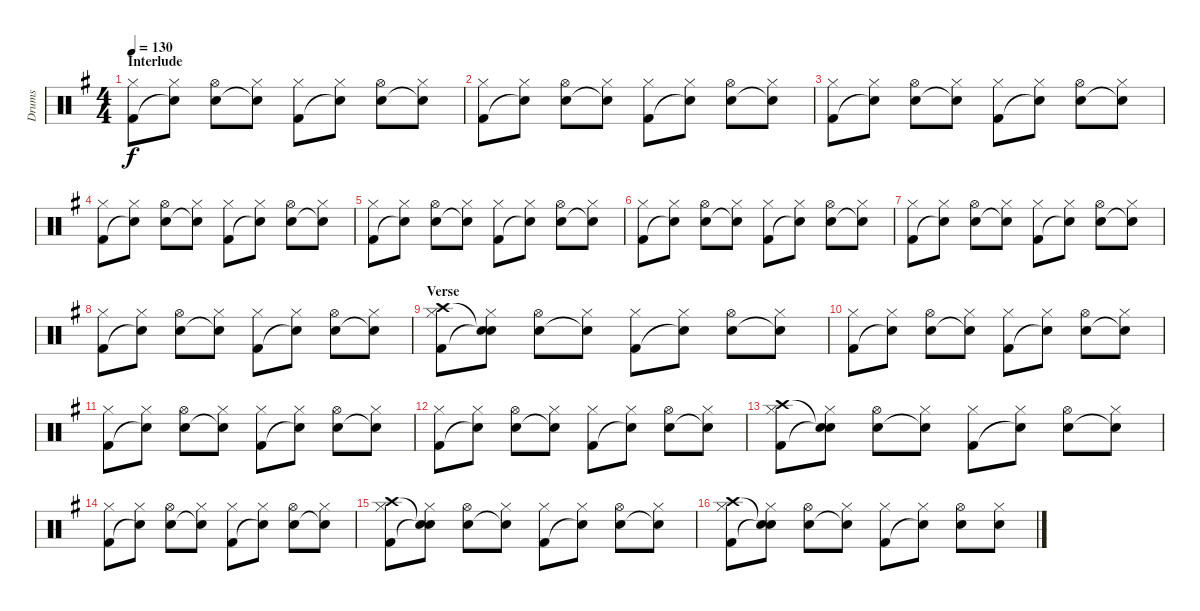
\track ("Drums" "Drums") {instrument percussion}
\staff {score}
\articulation defaults
\ts (4 4)
\section ("" "Interlude")
\tempo 130
\clef neutral
\ks g
("Hi-Hat (closed)" "Kick (hit) 2").8{dy f} ("Hi-Hat (closed)" "Snare (hit)"{t}).8 ("Hi-Hat (open)" "Electric Snare (hit)").8 ("Hi-Hat (closed)" "Snare (hit)"{t}).8 ("Hi-Hat (closed)" "Kick (hit) 2").8 ("Hi-Hat (closed)" "Snare (hit)"{t}).8 ("Hi-Hat (open)" "Electric Snare (hit)").8 ("Hi-Hat (closed)" "Snare (hit)"{t}).8 |
("Hi-Hat (closed)" "Kick (hit) 2").8 ("Hi-Hat (closed)" "Snare (hit)"{t}).8 ("Hi-Hat (open)" "Electric Snare (hit)").8 ("Hi-Hat (closed)" "Snare (hit)"{t}).8 ("Hi-Hat (closed)" "Kick (hit) 2").8 ("Hi-Hat (closed)" "Snare (hit)"{t}).8 ("Hi-Hat (open)" "Electric Snare (hit)").8 ("Hi-Hat (closed)" "Snare (hit)"{t}).8 |
("Hi-Hat (closed)" "Kick (hit) 2").8 ("Hi-Hat (closed)" "Snare (hit)"{t}).8 ("Hi-Hat (open)" "Electric Snare (hit)").8 ("Hi-Hat (closed)" "Snare (hit)"{t}).8 ("Hi-Hat (closed)" "Kick (hit) 2").8 ("Hi-Hat (closed)" "Snare (hit)"{t}).8 ("Hi-Hat (open)" "Electric Snare (hit)").8 ("Hi-Hat (closed)" "Snare (hit)"{t}).8 |
("Hi-Hat (closed)" "Kick (hit) 2").8 ("Hi-Hat (closed)" "Snare (hit)"{t}).8 ("Hi-Hat (open)" "Electric Snare (hit)").8 ("Hi-Hat (closed)" "Snare (hit)"{t}).8 ("Hi-Hat (closed)" "Kick (hit) 2").8 ("Hi-Hat (closed)" "Snare (hit)"{t}).8 ("Hi-Hat (open)" "Electric Snare (hit)").8 ("Hi-Hat (closed)" "Snare (hit)"{t}).8 |
("Hi-Hat (closed)" "Kick (hit) 2").8 ("Hi-Hat (closed)" "Snare (hit)"{t}).8 ("Hi-Hat (open)" "Electric Snare (hit)").8 ("Hi-Hat (closed)" "Snare (hit)"{t}).8 ("Hi-Hat (closed)" "Kick (hit) 2").8 ("Hi-Hat (closed)" "Snare (hit)"{t}).8 ("Hi-Hat (open)" "Electric Snare (hit)").8 ("Hi-Hat (closed)" "Snare (hit)"{t}).8 |
("Hi-Hat (closed)" "Kick (hit) 2").8 ("Hi-Hat (closed)" "Snare (hit)"{t}).8 ("Hi-Hat (open)" "Electric Snare (hit)").8 ("Hi-Hat (closed)" "Snare (hit)"{t}).8 ("Hi-Hat (closed)" "Kick (hit) 2").8 ("Hi-Hat (closed)" "Snare (hit)"{t}).8 ("Hi-Hat (open)" "Electric Snare (hit)").8 ("Hi-Hat (closed)" "Snare (hit)"{t}).8 |
("Hi-Hat (closed)" "Kick (hit) 2").8 ("Hi-Hat (closed)" "Snare (hit)"{t}).8 ("Hi-Hat (open)" "Electric Snare (hit)").8 ("Hi-Hat (closed)" "Snare (hit)"{t}).8 ("Hi-Hat (closed)" "Kick (hit) 2").8 ("Hi-Hat (closed)" "Snare (hit)"{t}).8 ("Hi-Hat (open)" "Electric Snare (hit)").8 ("Hi-Hat (closed)" "Snare (hit)"{t}).8 |
("Hi-Hat (closed)" "Kick (hit) 2").8 ("Hi-Hat (closed)" "Snare (hit)"{t}).8 ("Hi-Hat (open)" "Electric Snare (hit)").8 ("Hi-Hat (closed)" "Snare (hit)"{t}).8 ("Hi-Hat (closed)" "Kick (hit) 2").8 ("Hi-Hat (closed)" "Snare (hit)"{t}).8 ("Hi-Hat (open)" "Electric Snare (hit)").8 ("Hi-Hat (closed)" "Snare (hit)"{t}).8 |
\section ("" "Verse")
("Hi-Hat (closed)" "Crash high (hit)" "Kick (hit) 2").8 ("Hi-Hat (closed)" "Snare (hit)"{t} "Snare (hit)"{t}).8 ("Hi-Hat (open)" "Electric Snare (hit)").8 ("Hi-Hat (closed)" "Snare (hit)"{t}).8 ("Hi-Hat (closed)" "Kick (hit) 2").8 ("Hi-Hat (closed)" "Snare (hit)"{t}).8 ("Hi-Hat (open)" "Electric Snare (hit)").8 ("Hi-Hat (closed)" "Snare (hit)"{t}).8 |
("Hi-Hat (closed)" "Kick (hit) 2").8 ("Hi-Hat (closed)" "Snare (hit)"{t}).8 ("Hi-Hat (open)" "Electric Snare (hit)").8 ("Hi-Hat (closed)" "Snare (hit)"{t}).8 ("Hi-Hat (closed)" "Kick (hit) 2").8 ("Hi-Hat (closed)" "Snare (hit)"{t}).8 ("Hi-Hat (open)" "Electric Snare (hit)").8 ("Hi-Hat (closed)" "Snare (hit)"{t}).8 |
("Hi-Hat (closed)" "Kick (hit) 2").8 ("Hi-Hat (closed)" "Snare (hit)"{t}).8 ("Hi-Hat (open)" "Electric Snare (hit)").8 ("Hi-Hat (closed)" "Snare (hit)"{t}).8 ("Hi-Hat (closed)" "Kick (hit) 2").8 ("Hi-Hat (closed)" "Snare (hit)"{t}).8 ("Hi-Hat (open)" "Electric Snare (hit)").8 ("Hi-Hat (closed)" "Snare (hit)"{t}).8 |
("Hi-Hat (closed)" "Kick (hit) 2").8 ("Hi-Hat (closed)" "Snare (hit)"{t}).8 ("Hi-Hat (open)" "Electric Snare (hit)").8 ("Hi-Hat (closed)" "Snare (hit)"{t}).8 ("Hi-Hat (closed)" "Kick (hit) 2").8 ("Hi-Hat (closed)" "Snare (hit)"{t}).8 ("Hi-Hat (open)" "Electric Snare (hit)").8 ("Hi-Hat (closed)" "Snare (hit)"{t}).8 |
("Hi-Hat (closed)" "Crash high (hit)" "Kick (hit) 2").8 ("Hi-Hat (closed)" "Snare (hit)"{t} "Snare (hit)"{t}).8 ("Hi-Hat (open)" "Electric Snare (hit)").8 ("Hi-Hat (closed)" "Snare (hit)"{t}).8 ("Hi-Hat (closed)" "Kick (hit) 2").8 ("Hi-Hat (closed)" "Snare (hit)"{t}).8 ("Hi-Hat (open)" "Electric Snare (hit)").8 ("Hi-Hat (closed)" "Snare (hit)"{t}).8 |
("Hi-Hat (closed)" "Kick (hit) 2").8 ("Hi-Hat (closed)" "Snare (hit)"{t}).8 ("Hi-Hat (open)" "Electric Snare (hit)").8 ("Hi-Hat (closed)" "Snare (hit)"{t}).8 ("Hi-Hat (closed)" "Kick (hit) 2").8 ("Hi-Hat (closed)" "Snare (hit)"{t}).8 ("Hi-Hat (open)" "Electric Snare (hit)").8 ("Hi-Hat (closed)" "Snare (hit)"{t}).8 |
("Hi-Hat (closed)" "Crash high (hit)" "Kick (hit) 2").8 ("Hi-Hat (closed)" "Snare (hit)"{t} "Snare (hit)"{t}).8 ("Hi-Hat (open)" "Electric Snare (hit)").8 ("Hi-Hat (closed)" "Snare (hit)"{t}).8 ("Hi-Hat (closed)" "Kick (hit) 2").8 ("Hi-Hat (closed)" "Snare (hit)"{t}).8 ("Hi-Hat (open)" "Electric Snare (hit)").8 ("Hi-Hat (closed)" "Snare (hit)"{t}).8 |
("Hi-Hat (closed)" "Crash high (hit)" "Kick (hit) 2").8 ("Hi-Hat (closed)" "Snare (hit)"{t} "Snare (hit)"{t}).8 ("Hi-Hat (open)" "Electric Snare (hit)").8 ("Hi-Hat (closed)" "Snare (hit)"{t}).8 ("Hi-Hat (closed)" "Kick (hit) 2").8 ("Hi-Hat (closed)" "Snare (hit)"{t}).8 ("Hi-Hat (open)" "Electric Snare (hit)").8 ("Hi-Hat (closed)" "Electric Snare (hit)").8
